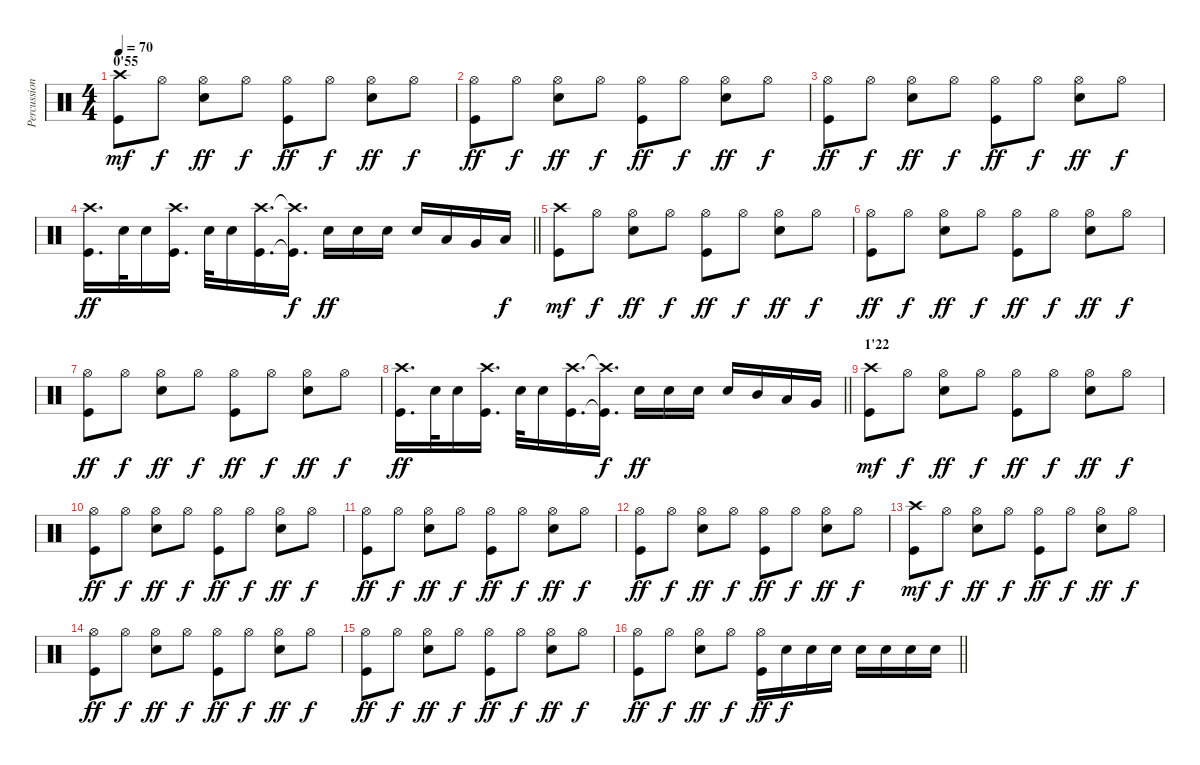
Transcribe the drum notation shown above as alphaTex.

\track ("Percussions" "Percussion") {instrument percussion}
\staff {score}
\articulation defaults
\ts (4 4)
\section ("" "0'55")
\tempo 70
\clef neutral
\ks c
("Kick (hit)" "Crash high (hit)").8{dy mf} "Hi-Hat (open)".8{dy f} ("Electric Snare (hit)" "Hi-Hat (open)").8{dy ff} "Hi-Hat (open)".8{dy f} ("Kick (hit)" "Hi-Hat (open)").8{dy ff} "Hi-Hat (open)".8{dy f} ("Electric Snare (hit)" "Hi-Hat (open)").8{dy ff} "Hi-Hat (open)".8{dy f} |
("Kick (hit)" "Hi-Hat (open)").8{dy ff} "Hi-Hat (open)".8{dy f} ("Electric Snare (hit)" "Hi-Hat (open)").8{dy ff} "Hi-Hat (open)".8{dy f} ("Kick (hit)" "Hi-Hat (open)").8{dy ff} "Hi-Hat (open)".8{dy f} ("Electric Snare (hit)" "Hi-Hat (open)").8{dy ff} "Hi-Hat (open)".8{dy f} |
("Kick (hit)" "Hi-Hat (open)").8{dy ff} "Hi-Hat (open)".8{dy f} ("Electric Snare (hit)" "Hi-Hat (open)").8{dy ff} "Hi-Hat (open)".8{dy f} ("Kick (hit)" "Hi-Hat (open)").8{dy ff} "Hi-Hat (open)".8{dy f} ("Electric Snare (hit)" "Hi-Hat (open)").8{dy ff} "Hi-Hat (open)".8{dy f} |
\barLineRight lightlight
("Kick (hit)" "Crash high (hit)").16{d dy ff} "Electric Snare (hit)".32 "Electric Snare (hit)".16 ("Kick (hit)" "Crash high (hit)").16{d} "Electric Snare (hit)".32 "Electric Snare (hit)".16 ("Kick (hit)" "Crash high (hit)").16{d} ("Kick (hit)"{t} "Crash high (hit)"{t}).16{d dy f} "Electric Snare (hit)".16{dy ff} "Electric Snare (hit)".16 "Electric Snare (hit)".16 "Electric Snare (hit)".16{beam Up} "Low Tom (hit)".16{beam Up} "Very Low Tom (hit)".16{beam Up} "Low Floor Tom (hit)".16{dy f} |
("Kick (hit)" "Crash high (hit)").8{dy mf} "Hi-Hat (open)".8{dy f} ("Electric Snare (hit)" "Hi-Hat (open)").8{dy ff} "Hi-Hat (open)".8{dy f} ("Kick (hit)" "Hi-Hat (open)").8{dy ff} "Hi-Hat (open)".8{dy f} ("Electric Snare (hit)" "Hi-Hat (open)").8{dy ff} "Hi-Hat (open)".8{dy f} |
("Kick (hit)" "Hi-Hat (open)").8{dy ff} "Hi-Hat (open)".8{dy f} ("Electric Snare (hit)" "Hi-Hat (open)").8{dy ff} "Hi-Hat (open)".8{dy f} ("Kick (hit)" "Hi-Hat (open)").8{dy ff} "Hi-Hat (open)".8{dy f} ("Electric Snare (hit)" "Hi-Hat (open)").8{dy ff} "Hi-Hat (open)".8{dy f} |
("Kick (hit)" "Hi-Hat (open)").8{dy ff} "Hi-Hat (open)".8{dy f} ("Electric Snare (hit)" "Hi-Hat (open)").8{dy ff} "Hi-Hat (open)".8{dy f} ("Kick (hit)" "Hi-Hat (open)").8{dy ff} "Hi-Hat (open)".8{dy f} ("Electric Snare (hit)" "Hi-Hat (open)").8{dy ff} "Hi-Hat (open)".8{dy f} |
\barLineRight lightlight
("Kick (hit)" "Crash high (hit)").16{d dy ff} "Electric Snare (hit)".32 "Electric Snare (hit)".16 ("Kick (hit)" "Crash high (hit)").16{d} "Electric Snare (hit)".32 "Electric Snare (hit)".16 ("Kick (hit)" "Crash high (hit)").16{d} ("Kick (hit)"{t} "Crash high (hit)"{t}).16{d dy f} "Electric Snare (hit)".16{dy ff} "Electric Snare (hit)".16 "Electric Snare (hit)".16 "Electric Snare (hit)".16{beam Up} "Mid Tom (hit)".16{beam Up} "Low Tom (hit)".16{beam Up} "Very Low Tom (hit)".16{beam Up} |
\section ("" "1'22")
("Kick (hit)" "Crash high (hit)").8{dy mf} "Hi-Hat (open)".8{dy f} ("Electric Snare (hit)" "Hi-Hat (open)").8{dy ff} "Hi-Hat (open)".8{dy f} ("Kick (hit)" "Hi-Hat (open)").8{dy ff} "Hi-Hat (open)".8{dy f} ("Electric Snare (hit)" "Hi-Hat (open)").8{dy ff} "Hi-Hat (open)".8{dy f} |
("Kick (hit)" "Hi-Hat (open)").8{dy ff} "Hi-Hat (open)".8{dy f} ("Electric Snare (hit)" "Hi-Hat (open)").8{dy ff} "Hi-Hat (open)".8{dy f} ("Kick (hit)" "Hi-Hat (open)").8{dy ff} "Hi-Hat (open)".8{dy f} ("Electric Snare (hit)" "Hi-Hat (open)").8{dy ff} "Hi-Hat (open)".8{dy f} |
("Kick (hit)" "Hi-Hat (open)").8{dy ff} "Hi-Hat (open)".8{dy f} ("Electric Snare (hit)" "Hi-Hat (open)").8{dy ff} "Hi-Hat (open)".8{dy f} ("Kick (hit)" "Hi-Hat (open)").8{dy ff} "Hi-Hat (open)".8{dy f} ("Electric Snare (hit)" "Hi-Hat (open)").8{dy ff} "Hi-Hat (open)".8{dy f} |
("Kick (hit)" "Hi-Hat (open)").8{dy ff} "Hi-Hat (open)".8{dy f} ("Electric Snare (hit)" "Hi-Hat (open)").8{dy ff} "Hi-Hat (open)".8{dy f} ("Kick (hit)" "Hi-Hat (open)").8{dy ff} "Hi-Hat (open)".8{dy f} ("Electric Snare (hit)" "Hi-Hat (open)").8{dy ff} "Hi-Hat (open)".8{dy f} |
("Kick (hit)" "Crash high (hit)").8{dy mf} "Hi-Hat (open)".8{dy f} ("Electric Snare (hit)" "Hi-Hat (open)").8{dy ff} "Hi-Hat (open)".8{dy f} ("Kick (hit)" "Hi-Hat (open)").8{dy ff} "Hi-Hat (open)".8{dy f} ("Electric Snare (hit)" "Hi-Hat (open)").8{dy ff} "Hi-Hat (open)".8{dy f} |
("Kick (hit)" "Hi-Hat (open)").8{dy ff} "Hi-Hat (open)".8{dy f} ("Electric Snare (hit)" "Hi-Hat (open)").8{dy ff} "Hi-Hat (open)".8{dy f} ("Kick (hit)" "Hi-Hat (open)").8{dy ff} "Hi-Hat (open)".8{dy f} ("Electric Snare (hit)" "Hi-Hat (open)").8{dy ff} "Hi-Hat (open)".8{dy f} |
("Kick (hit)" "Hi-Hat (open)").8{dy ff} "Hi-Hat (open)".8{dy f} ("Electric Snare (hit)" "Hi-Hat (open)").8{dy ff} "Hi-Hat (open)".8{dy f} ("Kick (hit)" "Hi-Hat (open)").8{dy ff} "Hi-Hat (open)".8{dy f} ("Electric Snare (hit)" "Hi-Hat (open)").8{dy ff} "Hi-Hat (open)".8{dy f} |
\barLineRight lightlight
("Kick (hit)" "Hi-Hat (open)").8{dy ff} "Hi-Hat (open)".8{dy f} ("Electric Snare (hit)" "Hi-Hat (open)").8{dy ff} "Hi-Hat (open)".8{dy f} ("Kick (hit)" "Hi-Hat (open)").16{dy ff} "Electric Snare (hit)".16{dy f} "Electric Snare (hit)".16 "Electric Snare (hit)".16 "Electric Snare (hit)".16 "Electric Snare (hit)".16 "Electric Snare (hit)".16 "Electric Snare (hit)".16
